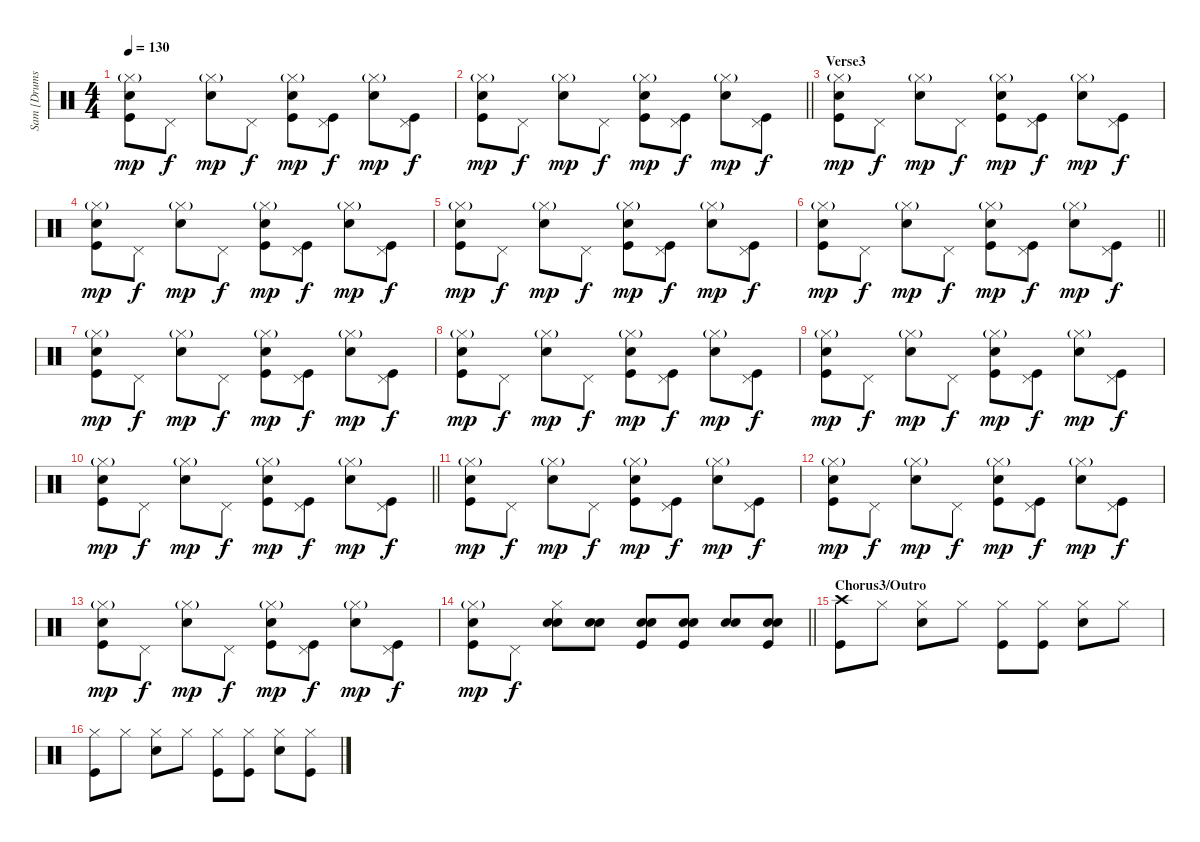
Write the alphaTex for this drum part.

\track ("Sam [Drums]" "Sam [Drums") {instrument percussion}
\staff {score}
\articulation defaults
\ts (4 4)
\tempo 130
\clef neutral
\ks c
("Hi-Hat (closed)"{g} "Snare (hit) 2" "Kick (hit)").8{dy mp} "Pedal Hi-Hat (hit)".8{dy f} ("Hi-Hat (closed)"{g} "Snare (hit) 2").8{dy mp} "Pedal Hi-Hat (hit)".8{dy f} ("Hi-Hat (closed)"{g} "Snare (hit) 2" "Kick (hit)").8{dy mp} ("Pedal Hi-Hat (hit)" "Kick (hit)").8{dy f} ("Hi-Hat (closed)"{g} "Snare (hit) 2").8{dy mp} ("Pedal Hi-Hat (hit)" "Kick (hit)").8{dy f} |
\barLineRight lightlight
("Hi-Hat (closed)"{g} "Snare (hit) 2" "Kick (hit)").8{dy mp} "Pedal Hi-Hat (hit)".8{dy f} ("Hi-Hat (closed)"{g} "Snare (hit) 2").8{dy mp} "Pedal Hi-Hat (hit)".8{dy f} ("Hi-Hat (closed)"{g} "Snare (hit) 2" "Kick (hit)").8{dy mp} ("Pedal Hi-Hat (hit)" "Kick (hit)").8{dy f} ("Hi-Hat (closed)"{g} "Snare (hit) 2").8{dy mp} ("Pedal Hi-Hat (hit)" "Kick (hit)").8{dy f} |
\section ("" "Verse3")
("Hi-Hat (closed)"{g} "Snare (hit) 2" "Kick (hit)").8{dy mp} "Pedal Hi-Hat (hit)".8{dy f} ("Hi-Hat (closed)"{g} "Snare (hit) 2").8{dy mp} "Pedal Hi-Hat (hit)".8{dy f} ("Hi-Hat (closed)"{g} "Snare (hit) 2" "Kick (hit)").8{dy mp} ("Pedal Hi-Hat (hit)" "Kick (hit)").8{dy f} ("Hi-Hat (closed)"{g} "Snare (hit) 2").8{dy mp} ("Pedal Hi-Hat (hit)" "Kick (hit)").8{dy f} |
("Hi-Hat (closed)"{g} "Snare (hit) 2" "Kick (hit)").8{dy mp} "Pedal Hi-Hat (hit)".8{dy f} ("Hi-Hat (closed)"{g} "Snare (hit) 2").8{dy mp} "Pedal Hi-Hat (hit)".8{dy f} ("Hi-Hat (closed)"{g} "Snare (hit) 2" "Kick (hit)").8{dy mp} ("Pedal Hi-Hat (hit)" "Kick (hit)").8{dy f} ("Hi-Hat (closed)"{g} "Snare (hit) 2").8{dy mp} ("Pedal Hi-Hat (hit)" "Kick (hit)").8{dy f} |
("Hi-Hat (closed)"{g} "Snare (hit) 2" "Kick (hit)").8{dy mp} "Pedal Hi-Hat (hit)".8{dy f} ("Hi-Hat (closed)"{g} "Snare (hit) 2").8{dy mp} "Pedal Hi-Hat (hit)".8{dy f} ("Hi-Hat (closed)"{g} "Snare (hit) 2" "Kick (hit)").8{dy mp} ("Pedal Hi-Hat (hit)" "Kick (hit)").8{dy f} ("Hi-Hat (closed)"{g} "Snare (hit) 2").8{dy mp} ("Pedal Hi-Hat (hit)" "Kick (hit)").8{dy f} |
\barLineRight lightlight
("Hi-Hat (closed)"{g} "Snare (hit) 2" "Kick (hit)").8{dy mp} "Pedal Hi-Hat (hit)".8{dy f} ("Hi-Hat (closed)"{g} "Snare (hit) 2").8{dy mp} "Pedal Hi-Hat (hit)".8{dy f} ("Hi-Hat (closed)"{g} "Snare (hit) 2" "Kick (hit)").8{dy mp} ("Pedal Hi-Hat (hit)" "Kick (hit)").8{dy f} ("Hi-Hat (closed)"{g} "Snare (hit) 2").8{dy mp} ("Pedal Hi-Hat (hit)" "Kick (hit)").8{dy f} |
("Hi-Hat (closed)"{g} "Snare (hit) 2" "Kick (hit)").8{dy mp} "Pedal Hi-Hat (hit)".8{dy f} ("Hi-Hat (closed)"{g} "Snare (hit) 2").8{dy mp} "Pedal Hi-Hat (hit)".8{dy f} ("Hi-Hat (closed)"{g} "Snare (hit) 2" "Kick (hit)").8{dy mp} ("Pedal Hi-Hat (hit)" "Kick (hit)").8{dy f} ("Hi-Hat (closed)"{g} "Snare (hit) 2").8{dy mp} ("Pedal Hi-Hat (hit)" "Kick (hit)").8{dy f} |
("Hi-Hat (closed)"{g} "Snare (hit) 2" "Kick (hit)").8{dy mp} "Pedal Hi-Hat (hit)".8{dy f} ("Hi-Hat (closed)"{g} "Snare (hit) 2").8{dy mp} "Pedal Hi-Hat (hit)".8{dy f} ("Hi-Hat (closed)"{g} "Snare (hit) 2" "Kick (hit)").8{dy mp} ("Pedal Hi-Hat (hit)" "Kick (hit)").8{dy f} ("Hi-Hat (closed)"{g} "Snare (hit) 2").8{dy mp} ("Pedal Hi-Hat (hit)" "Kick (hit)").8{dy f} |
("Hi-Hat (closed)"{g} "Snare (hit) 2" "Kick (hit)").8{dy mp} "Pedal Hi-Hat (hit)".8{dy f} ("Hi-Hat (closed)"{g} "Snare (hit) 2").8{dy mp} "Pedal Hi-Hat (hit)".8{dy f} ("Hi-Hat (closed)"{g} "Snare (hit) 2" "Kick (hit)").8{dy mp} ("Pedal Hi-Hat (hit)" "Kick (hit)").8{dy f} ("Hi-Hat (closed)"{g} "Snare (hit) 2").8{dy mp} ("Pedal Hi-Hat (hit)" "Kick (hit)").8{dy f} |
\barLineRight lightlight
("Hi-Hat (closed)"{g} "Snare (hit) 2" "Kick (hit)").8{dy mp} "Pedal Hi-Hat (hit)".8{dy f} ("Hi-Hat (closed)"{g} "Snare (hit) 2").8{dy mp} "Pedal Hi-Hat (hit)".8{dy f} ("Hi-Hat (closed)"{g} "Snare (hit) 2" "Kick (hit)").8{dy mp} ("Pedal Hi-Hat (hit)" "Kick (hit)").8{dy f} ("Hi-Hat (closed)"{g} "Snare (hit) 2").8{dy mp} ("Pedal Hi-Hat (hit)" "Kick (hit)").8{dy f} |
("Hi-Hat (closed)"{g} "Snare (hit) 2" "Kick (hit)").8{dy mp} "Pedal Hi-Hat (hit)".8{dy f} ("Hi-Hat (closed)"{g} "Snare (hit) 2").8{dy mp} "Pedal Hi-Hat (hit)".8{dy f} ("Hi-Hat (closed)"{g} "Snare (hit) 2" "Kick (hit)").8{dy mp} ("Pedal Hi-Hat (hit)" "Kick (hit)").8{dy f} ("Hi-Hat (closed)"{g} "Snare (hit) 2").8{dy mp} ("Pedal Hi-Hat (hit)" "Kick (hit)").8{dy f} |
("Hi-Hat (closed)"{g} "Snare (hit) 2" "Kick (hit)").8{dy mp} "Pedal Hi-Hat (hit)".8{dy f} ("Hi-Hat (closed)"{g} "Snare (hit) 2").8{dy mp} "Pedal Hi-Hat (hit)".8{dy f} ("Hi-Hat (closed)"{g} "Snare (hit) 2" "Kick (hit)").8{dy mp} ("Pedal Hi-Hat (hit)" "Kick (hit)").8{dy f} ("Hi-Hat (closed)"{g} "Snare (hit) 2").8{dy mp} ("Pedal Hi-Hat (hit)" "Kick (hit)").8{dy f} |
("Hi-Hat (closed)"{g} "Snare (hit) 2" "Kick (hit)").8{dy mp} "Pedal Hi-Hat (hit)".8{dy f} ("Hi-Hat (closed)"{g} "Snare (hit) 2").8{dy mp} "Pedal Hi-Hat (hit)".8{dy f} ("Hi-Hat (closed)"{g} "Snare (hit) 2" "Kick (hit)").8{dy mp} ("Pedal Hi-Hat (hit)" "Kick (hit)").8{dy f} ("Hi-Hat (closed)"{g} "Snare (hit) 2").8{dy mp} ("Pedal Hi-Hat (hit)" "Kick (hit)").8{dy f} |
\barLineRight lightlight
("Hi-Hat (closed)"{g} "Snare (hit) 2" "Kick (hit)").8{dy mp} "Pedal Hi-Hat (hit)".8{dy f} ("Hi-Hat (closed)" "Snare (hit) 2" "Snare (hit) 2").8 ("Snare (hit) 2" "Snare (hit) 2").8 ("Snare (hit) 2" "Snare (hit) 2" "Kick (hit)").8 ("Snare (hit) 2" "Snare (hit) 2" "Kick (hit)").8 ("Snare (hit) 2" "Snare (hit) 2").8 ("Snare (hit) 2" "Snare (hit) 2" "Kick (hit)").8 |
\section ("" "Chorus3/Outro")
("Crash high (hit)" "Kick (hit)").8 "Hi-Hat (closed)".8 ("Hi-Hat (closed)" "Snare (hit) 2").8 "Hi-Hat (closed)".8 ("Hi-Hat (closed)" "Kick (hit)").8 ("Hi-Hat (closed)" "Kick (hit)").8 ("Hi-Hat (closed)" "Snare (hit) 2").8 "Hi-Hat (closed)".8 |
("Hi-Hat (closed)" "Kick (hit)").8 "Hi-Hat (closed)".8 ("Hi-Hat (closed)" "Snare (hit) 2").8 "Hi-Hat (closed)".8 ("Hi-Hat (closed)" "Kick (hit)").8 ("Hi-Hat (closed)" "Kick (hit)").8 ("Hi-Hat (closed)" "Snare (hit) 2").8 ("Hi-Hat (closed)" "Kick (hit)").8
